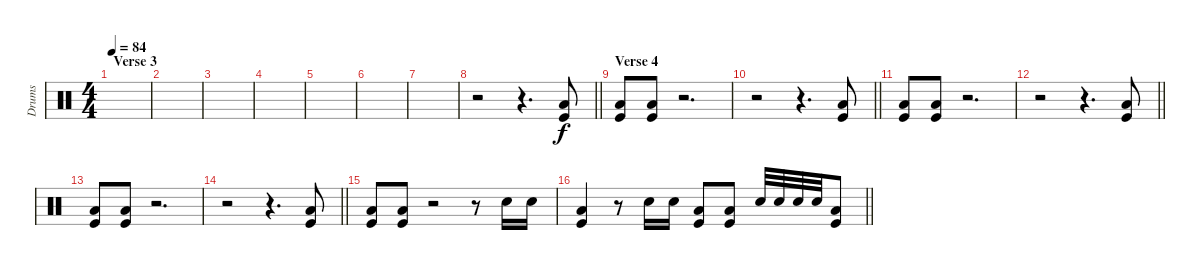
\track ("Drums" "Drums") {instrument percussion}
\staff {score}
\articulation defaults
\ts (4 4)
\section ("" "Verse 3")
\tempo 84
\clef neutral
\ks c
|
|
|
|
|
|
|
\barLineRight lightlight
r.2 r.4{d} ("Low Floor Tom (hit)" "Kick (hit)").8 |
\section ("" "Verse 4")
("Kick (hit)" "Low Floor Tom (hit)").8 ("Kick (hit)" "Low Floor Tom (hit)").8 r.2{d} |
\barLineRight lightlight
r.2 r.4{d} ("Low Floor Tom (hit)" "Kick (hit)").8 |
("Kick (hit)" "Low Floor Tom (hit)").8 ("Kick (hit)" "Low Floor Tom (hit)").8 r.2{d} |
\barLineRight lightlight
r.2 r.4{d} ("Low Floor Tom (hit)" "Kick (hit)").8 |
("Kick (hit)" "Low Floor Tom (hit)").8 ("Kick (hit)" "Low Floor Tom (hit)").8 r.2{d} |
\barLineRight lightlight
r.2 r.4{d} ("Low Floor Tom (hit)" "Kick (hit)").8 |
("Kick (hit)" "Low Floor Tom (hit)").8 ("Kick (hit)" "Low Floor Tom (hit)").8 r.2 r.8 "Snare (hit) 2".16 "Snare (hit) 2".16 |
\barLineRight lightlight
("Kick (hit)" "Low Floor Tom (hit)").4 r.8 "Snare (hit) 2".16 "Snare (hit) 2".16 ("Kick (hit)" "Low Floor Tom (hit)").8 ("Kick (hit)" "Low Floor Tom (hit)").8 "Snare (hit) 2".32 "Snare (hit) 2".32 "Snare (hit) 2".32 "Snare (hit) 2".32 ("Kick (hit)" "Low Floor Tom (hit)").8
